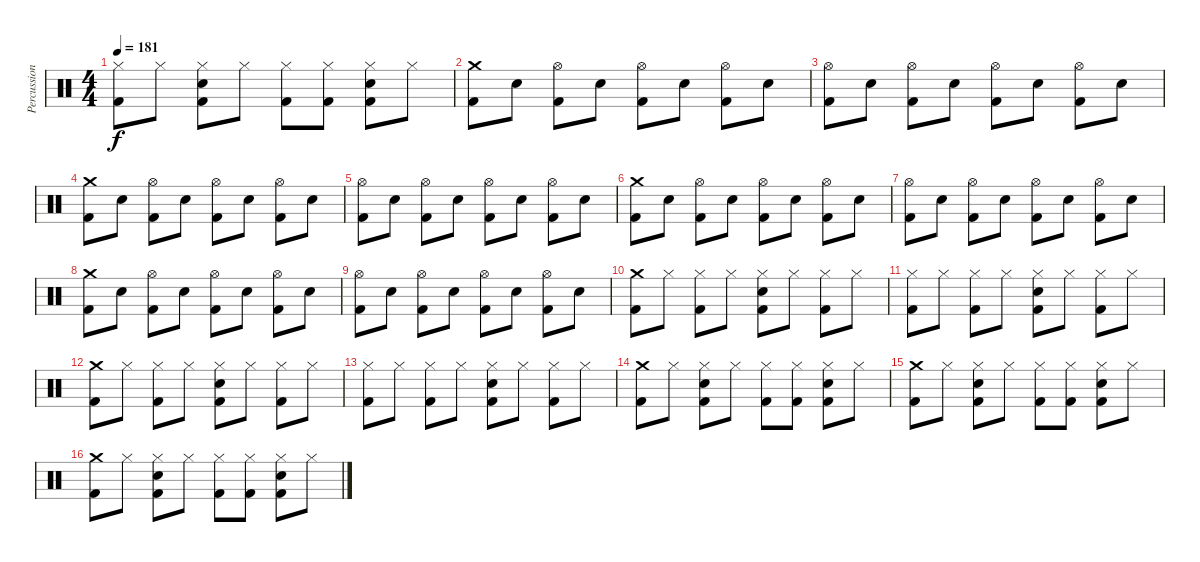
\track ("Percussion" "Percussion") {instrument percussion}
\staff {score}
\articulation defaults
\ts (4 4)
\tempo 181
\clef neutral
\ks c
("Hi-Hat (closed)" "Kick (hit) 2").8{dy f} "Hi-Hat (closed)".8 ("Hi-Hat (closed)" "Electric Snare (hit)" "Kick (hit) 2").8 "Hi-Hat (closed)".8 ("Hi-Hat (closed)" "Kick (hit) 2").8 ("Hi-Hat (closed)" "Kick (hit) 2").8 ("Hi-Hat (closed)" "Electric Snare (hit)" "Kick (hit) 2").8 "Hi-Hat (closed)".8 |
("Crash medium (hit)" "Kick (hit) 2").8 "Electric Snare (hit)".8 ("Hi-Hat (open)" "Kick (hit) 2").8 "Electric Snare (hit)".8 ("Hi-Hat (open)" "Kick (hit) 2").8 "Electric Snare (hit)".8 ("Hi-Hat (open)" "Kick (hit) 2").8 "Electric Snare (hit)".8 |
("Hi-Hat (open)" "Kick (hit) 2").8 "Electric Snare (hit)".8 ("Hi-Hat (open)" "Kick (hit) 2").8 "Electric Snare (hit)".8 ("Hi-Hat (open)" "Kick (hit) 2").8 "Electric Snare (hit)".8 ("Hi-Hat (open)" "Kick (hit) 2").8 "Electric Snare (hit)".8 |
("Crash medium (hit)" "Kick (hit) 2").8 "Electric Snare (hit)".8 ("Hi-Hat (open)" "Kick (hit) 2").8 "Electric Snare (hit)".8 ("Hi-Hat (open)" "Kick (hit) 2").8 "Electric Snare (hit)".8 ("Hi-Hat (open)" "Kick (hit) 2").8 "Electric Snare (hit)".8 |
("Hi-Hat (open)" "Kick (hit) 2").8 "Electric Snare (hit)".8 ("Hi-Hat (open)" "Kick (hit) 2").8 "Electric Snare (hit)".8 ("Hi-Hat (open)" "Kick (hit) 2").8 "Electric Snare (hit)".8 ("Hi-Hat (open)" "Kick (hit) 2").8 "Electric Snare (hit)".8 |
("Crash medium (hit)" "Kick (hit) 2").8 "Electric Snare (hit)".8 ("Hi-Hat (open)" "Kick (hit) 2").8 "Electric Snare (hit)".8 ("Hi-Hat (open)" "Kick (hit) 2").8 "Electric Snare (hit)".8 ("Hi-Hat (open)" "Kick (hit) 2").8 "Electric Snare (hit)".8 |
("Hi-Hat (open)" "Kick (hit) 2").8 "Electric Snare (hit)".8 ("Hi-Hat (open)" "Kick (hit) 2").8 "Electric Snare (hit)".8 ("Hi-Hat (open)" "Kick (hit) 2").8 "Electric Snare (hit)".8 ("Hi-Hat (open)" "Kick (hit) 2").8 "Electric Snare (hit)".8 |
("Crash medium (hit)" "Kick (hit) 2").8 "Electric Snare (hit)".8 ("Hi-Hat (open)" "Kick (hit) 2").8 "Electric Snare (hit)".8 ("Hi-Hat (open)" "Kick (hit) 2").8 "Electric Snare (hit)".8 ("Hi-Hat (open)" "Kick (hit) 2").8 "Electric Snare (hit)".8 |
("Hi-Hat (open)" "Kick (hit) 2").8 "Electric Snare (hit)".8 ("Hi-Hat (open)" "Kick (hit) 2").8 "Electric Snare (hit)".8 ("Hi-Hat (open)" "Kick (hit) 2").8 "Electric Snare (hit)".8 ("Hi-Hat (open)" "Kick (hit) 2").8 "Electric Snare (hit)".8 |
("Crash medium (hit)" "Kick (hit) 2").8 "Hi-Hat (closed)".8 ("Hi-Hat (closed)" "Kick (hit) 2").8 "Hi-Hat (closed)".8 ("Hi-Hat (closed)" "Electric Snare (hit)" "Kick (hit) 2").8 "Hi-Hat (closed)".8 ("Hi-Hat (closed)" "Kick (hit) 2").8 "Hi-Hat (closed)".8 |
("Hi-Hat (closed)" "Kick (hit) 2").8 "Hi-Hat (closed)".8 ("Hi-Hat (closed)" "Kick (hit) 2").8 "Hi-Hat (closed)".8 ("Hi-Hat (closed)" "Electric Snare (hit)" "Kick (hit) 2").8 "Hi-Hat (closed)".8 ("Hi-Hat (closed)" "Kick (hit) 2").8 "Hi-Hat (closed)".8 |
("Crash medium (hit)" "Kick (hit) 2").8 "Hi-Hat (closed)".8 ("Hi-Hat (closed)" "Kick (hit) 2").8 "Hi-Hat (closed)".8 ("Hi-Hat (closed)" "Electric Snare (hit)" "Kick (hit) 2").8 "Hi-Hat (closed)".8 ("Hi-Hat (closed)" "Kick (hit) 2").8 "Hi-Hat (closed)".8 |
("Hi-Hat (closed)" "Kick (hit) 2").8 "Hi-Hat (closed)".8 ("Hi-Hat (closed)" "Kick (hit) 2").8 "Hi-Hat (closed)".8 ("Hi-Hat (closed)" "Electric Snare (hit)" "Kick (hit) 2").8 "Hi-Hat (closed)".8 ("Hi-Hat (closed)" "Kick (hit) 2").8 "Hi-Hat (closed)".8 |
("Crash medium (hit)" "Kick (hit) 2").8 "Hi-Hat (closed)".8 ("Hi-Hat (closed)" "Electric Snare (hit)" "Kick (hit) 2").8 "Hi-Hat (closed)".8 ("Hi-Hat (closed)" "Kick (hit) 2").8 ("Hi-Hat (closed)" "Kick (hit) 2").8 ("Hi-Hat (closed)" "Electric Snare (hit)" "Kick (hit) 2").8 "Hi-Hat (closed)".8 |
("Crash medium (hit)" "Kick (hit) 2").8 "Hi-Hat (closed)".8 ("Hi-Hat (closed)" "Electric Snare (hit)" "Kick (hit) 2").8 "Hi-Hat (closed)".8 ("Hi-Hat (closed)" "Kick (hit) 2").8 ("Hi-Hat (closed)" "Kick (hit) 2").8 ("Hi-Hat (closed)" "Electric Snare (hit)" "Kick (hit) 2").8 "Hi-Hat (closed)".8 |
("Crash medium (hit)" "Kick (hit) 2").8 "Hi-Hat (closed)".8 ("Hi-Hat (closed)" "Electric Snare (hit)" "Kick (hit) 2").8 "Hi-Hat (closed)".8 ("Hi-Hat (closed)" "Kick (hit) 2").8 ("Hi-Hat (closed)" "Kick (hit) 2").8 ("Hi-Hat (closed)" "Electric Snare (hit)" "Kick (hit) 2").8 "Hi-Hat (closed)".8
